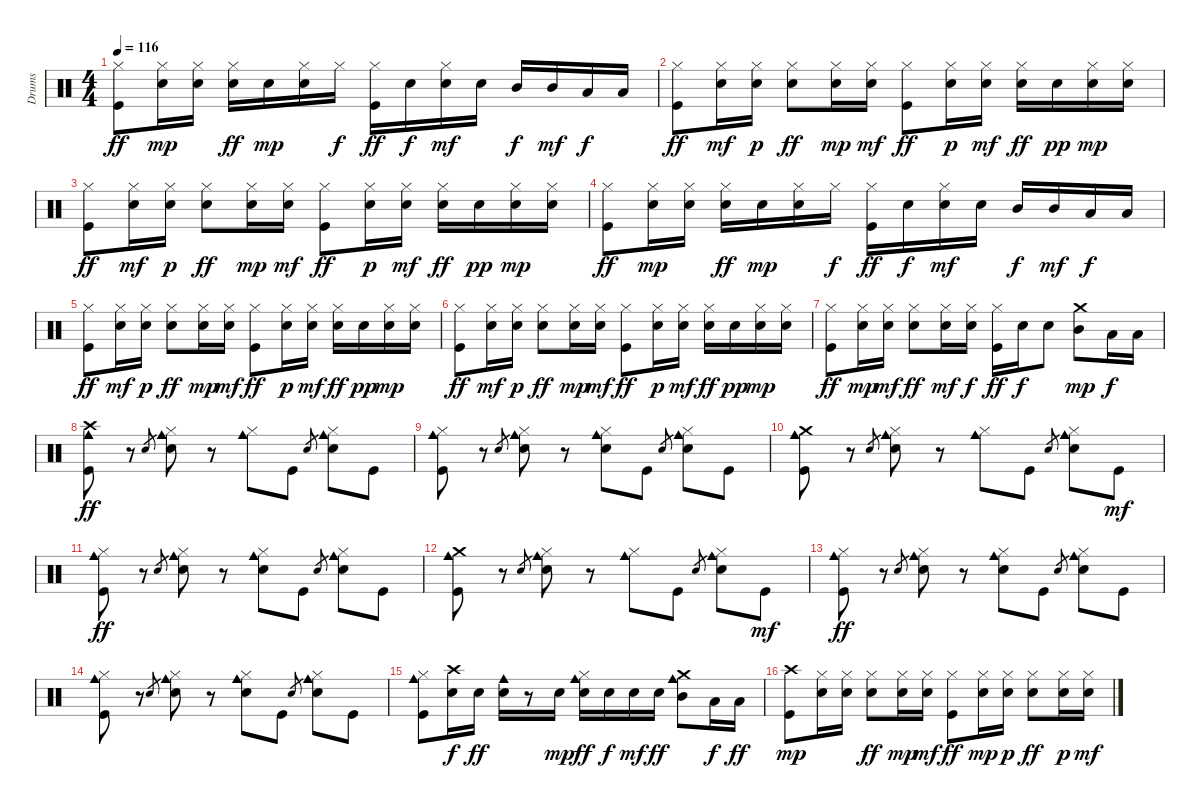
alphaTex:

\track ("Drums" "Drums") {instrument percussion}
\staff {score}
\articulation defaults
\ts (4 4)
\tempo 116
\clef neutral
\ks c
("Kick (hit)" "Hi-Hat (closed)").8{dy ff} ("Snare (hit) 2" "Hi-Hat (closed)").16{dy mp} ("Snare (hit) 2" "Hi-Hat (closed)").16 ("Electric Snare (hit)" "Hi-Hat (closed)").16{dy ff} "Snare (hit) 2".16{dy mp} ("Snare (hit) 2" "Hi-Hat (closed)").16 "Hi-Hat (closed)".16{dy f} ("Kick (hit)" "Hi-Hat (closed)").16{dy ff} "Snare (hit) 2".16{dy f} ("Snare (hit) 2" "Hi-Hat (closed)").16{dy mf} "Snare (hit) 2".16 "Mid Tom (hit)".16{dy f} "Mid Tom (hit)".16{dy mf} "Low Tom (hit)".16{dy f} "Low Floor Tom (hit)".16 |
("Kick (hit)" "Hi-Hat (closed)").8{dy ff} ("Snare (hit) 2" "Hi-Hat (closed)").16{dy mf} ("Snare (hit) 2" "Hi-Hat (closed)").16{dy p} ("Electric Snare (hit)" "Hi-Hat (closed)").8{dy ff} ("Snare (hit) 2" "Hi-Hat (closed)").16{dy mp} ("Snare (hit) 2" "Hi-Hat (closed)").16{dy mf} ("Kick (hit)" "Hi-Hat (closed)").8{dy ff} ("Snare (hit) 2" "Hi-Hat (closed)").16{dy p} ("Snare (hit) 2" "Hi-Hat (closed)").16{dy mf} ("Electric Snare (hit)" "Hi-Hat (closed)").16{dy ff} "Snare (hit) 2".16{dy pp} ("Snare (hit) 2" "Hi-Hat (closed)").16{dy mp} ("Snare (hit) 2" "Hi-Hat (closed)").16 |
("Kick (hit)" "Hi-Hat (closed)").8{dy ff} ("Snare (hit) 2" "Hi-Hat (closed)").16{dy mf} ("Snare (hit) 2" "Hi-Hat (closed)").16{dy p} ("Electric Snare (hit)" "Hi-Hat (closed)").8{dy ff} ("Snare (hit) 2" "Hi-Hat (closed)").16{dy mp} ("Snare (hit) 2" "Hi-Hat (closed)").16{dy mf} ("Kick (hit)" "Hi-Hat (closed)").8{dy ff} ("Snare (hit) 2" "Hi-Hat (closed)").16{dy p} ("Snare (hit) 2" "Hi-Hat (closed)").16{dy mf} ("Electric Snare (hit)" "Hi-Hat (closed)").16{dy ff} "Snare (hit) 2".16{dy pp} ("Snare (hit) 2" "Hi-Hat (closed)").16{dy mp} ("Snare (hit) 2" "Hi-Hat (closed)").16 |
("Kick (hit)" "Hi-Hat (closed)").8{dy ff} ("Snare (hit) 2" "Hi-Hat (closed)").16{dy mp} ("Snare (hit) 2" "Hi-Hat (closed)").16 ("Electric Snare (hit)" "Hi-Hat (closed)").16{dy ff} "Snare (hit) 2".16{dy mp} ("Snare (hit) 2" "Hi-Hat (closed)").16 "Hi-Hat (closed)".16{dy f} ("Kick (hit)" "Hi-Hat (closed)").16{dy ff} "Snare (hit) 2".16{dy f} ("Snare (hit) 2" "Hi-Hat (closed)").16{dy mf} "Snare (hit) 2".16 "Mid Tom (hit)".16{dy f} "Mid Tom (hit)".16{dy mf} "Low Tom (hit)".16{dy f} "Low Floor Tom (hit)".16 |
("Kick (hit)" "Hi-Hat (closed)").8{dy ff} ("Snare (hit) 2" "Hi-Hat (closed)").16{dy mf} ("Snare (hit) 2" "Hi-Hat (closed)").16{dy p} ("Electric Snare (hit)" "Hi-Hat (closed)").8{dy ff} ("Snare (hit) 2" "Hi-Hat (closed)").16{dy mp} ("Snare (hit) 2" "Hi-Hat (closed)").16{dy mf} ("Kick (hit)" "Hi-Hat (closed)").8{dy ff} ("Snare (hit) 2" "Hi-Hat (closed)").16{dy p} ("Snare (hit) 2" "Hi-Hat (closed)").16{dy mf} ("Electric Snare (hit)" "Hi-Hat (closed)").16{dy ff} "Snare (hit) 2".16{dy pp} ("Snare (hit) 2" "Hi-Hat (closed)").16{dy mp} ("Snare (hit) 2" "Hi-Hat (closed)").16 |
("Kick (hit)" "Hi-Hat (closed)").8{dy ff} ("Snare (hit) 2" "Hi-Hat (closed)").16{dy mf} ("Snare (hit) 2" "Hi-Hat (closed)").16{dy p} ("Electric Snare (hit)" "Hi-Hat (closed)").8{dy ff} ("Snare (hit) 2" "Hi-Hat (closed)").16{dy mp} ("Snare (hit) 2" "Hi-Hat (closed)").16{dy mf} ("Kick (hit)" "Hi-Hat (closed)").8{dy ff} ("Snare (hit) 2" "Hi-Hat (closed)").16{dy p} ("Snare (hit) 2" "Hi-Hat (closed)").16{dy mf} ("Electric Snare (hit)" "Hi-Hat (closed)").16{dy ff} "Snare (hit) 2".16{dy pp} ("Snare (hit) 2" "Hi-Hat (closed)").16{dy mp} ("Snare (hit) 2" "Hi-Hat (closed)").16 |
("Kick (hit)" "Hi-Hat (closed)").8{dy ff} ("Snare (hit) 2" "Hi-Hat (closed)").16{dy mp} ("Snare (hit) 2" "Hi-Hat (closed)").16{dy mf} ("Electric Snare (hit)" "Hi-Hat (closed)").8{dy ff} ("Snare (hit) 2" "Hi-Hat (closed)").16{dy mf} ("Snare (hit) 2" "Hi-Hat (closed)").16{dy f} ("Kick (hit)" "Hi-Hat (closed)").16{dy ff} "Snare (hit) 2".16{dy f} "Snare (hit) 2".8 ("Mid Tom (hit)" "Crash medium (hit)").8{dy mp} "Low Tom (hit)".16{dy f} "Low Floor Tom (hit)".16 |
("Kick (hit)" "Crash high (hit)" "Cowbell medium (hit)").8{dy ff} r.8 "Electric Snare (hit)".8{gr} ("Snare (hit) 2" "Hi-Hat (closed)" "Cowbell medium (hit)").8 r.8 ("Hi-Hat (closed)" "Cowbell medium (hit)").8 "Kick (hit)".8 "Electric Snare (hit)".8{gr} ("Snare (hit) 2" "Hi-Hat (closed)" "Cowbell medium (hit)").8 "Kick (hit)".8 |
("Kick (hit)" "Hi-Hat (closed)" "Cowbell medium (hit)").8 r.8 "Electric Snare (hit)".8{gr} ("Snare (hit) 2" "Hi-Hat (closed)" "Cowbell medium (hit)").8 r.8 ("Snare (hit) 2" "Hi-Hat (closed)" "Cowbell medium (hit)").8 "Kick (hit)".8 "Electric Snare (hit)".8{gr} ("Snare (hit) 2" "Hi-Hat (closed)" "Cowbell medium (hit)").8 "Kick (hit)".8 |
("Kick (hit)" "Crash medium (hit)" "Cowbell medium (hit)").8 r.8 "Electric Snare (hit)".8{gr} ("Snare (hit) 2" "Hi-Hat (closed)" "Cowbell medium (hit)").8 r.8 ("Hi-Hat (closed)" "Cowbell medium (hit)").8 "Kick (hit)".8 "Electric Snare (hit)".8{gr} ("Snare (hit) 2" "Hi-Hat (closed)" "Cowbell medium (hit)").8 "Kick (hit)".8{dy mf} |
("Kick (hit)" "Hi-Hat (closed)" "Cowbell medium (hit)").8{dy ff} r.8 "Electric Snare (hit)".8{gr} ("Snare (hit) 2" "Hi-Hat (closed)" "Cowbell medium (hit)").8 r.8 ("Snare (hit) 2" "Hi-Hat (closed)" "Cowbell medium (hit)").8 "Kick (hit)".8 "Electric Snare (hit)".8{gr} ("Snare (hit) 2" "Hi-Hat (closed)" "Cowbell medium (hit)").8 "Kick (hit)".8 |
("Kick (hit)" "Crash medium (hit)" "Cowbell medium (hit)").8 r.8 "Electric Snare (hit)".8{gr} ("Snare (hit) 2" "Hi-Hat (closed)" "Cowbell medium (hit)").8 r.8 ("Hi-Hat (closed)" "Cowbell medium (hit)").8 "Kick (hit)".8 "Electric Snare (hit)".8{gr} ("Snare (hit) 2" "Hi-Hat (closed)" "Cowbell medium (hit)").8 "Kick (hit)".8{dy mf} |
("Kick (hit)" "Hi-Hat (closed)" "Cowbell medium (hit)").8{dy ff} r.8 "Electric Snare (hit)".8{gr} ("Snare (hit) 2" "Hi-Hat (closed)" "Cowbell medium (hit)").8 r.8 ("Snare (hit) 2" "Hi-Hat (closed)" "Cowbell medium (hit)").8 "Kick (hit)".8 "Electric Snare (hit)".8{gr} ("Snare (hit) 2" "Hi-Hat (closed)" "Cowbell medium (hit)").8 "Kick (hit)".8 |
("Kick (hit)" "Hi-Hat (closed)" "Cowbell medium (hit)").8 r.8 "Electric Snare (hit)".8{gr} ("Snare (hit) 2" "Hi-Hat (closed)" "Cowbell medium (hit)").8 r.8 ("Snare (hit) 2" "Hi-Hat (closed)" "Cowbell medium (hit)").8 "Kick (hit)".8 "Electric Snare (hit)".8{gr} ("Snare (hit) 2" "Hi-Hat (closed)" "Cowbell medium (hit)").8 "Kick (hit)".8 |
("Kick (hit)" "Hi-Hat (closed)" "Cowbell medium (hit)").8 ("Snare (hit) 2" "Crash high (hit)").16{dy f} "Snare (hit) 2".16{dy ff} ("Electric Snare (hit)" "Cowbell medium (hit)").16 r.8 "Snare (hit) 2".16{dy mp} ("Snare (hit) 2" "Hi-Hat (closed)" "Cowbell medium (hit)").16{dy ff} "Snare (hit) 2".16{dy f} "Snare (hit) 2".16{dy mf} "Snare (hit) 2".16{dy ff} ("Mid Tom (hit)" "Crash medium (hit)" "Cowbell medium (hit)").8 "Low Tom (hit)".16{dy f} "Low Floor Tom (hit)".16{dy ff} |
("Kick (hit)" "Crash high (hit)").8{dy mp} ("Snare (hit) 2" "Hi-Hat (closed)").16 ("Snare (hit) 2" "Hi-Hat (closed)").16 ("Electric Snare (hit)" "Hi-Hat (closed)").8{dy ff} ("Snare (hit) 2" "Hi-Hat (closed)").16{dy mp} ("Snare (hit) 2" "Hi-Hat (closed)").16{dy mf} ("Kick (hit)" "Hi-Hat (closed)").8{dy ff} ("Snare (hit) 2" "Hi-Hat (closed)").16{dy mp} ("Snare (hit) 2" "Hi-Hat (closed)").16{dy p} ("Electric Snare (hit)" "Hi-Hat (closed)").8{dy ff} ("Snare (hit) 2" "Hi-Hat (closed)").16{dy p} ("Snare (hit) 2" "Hi-Hat (closed)").16{dy mf}
